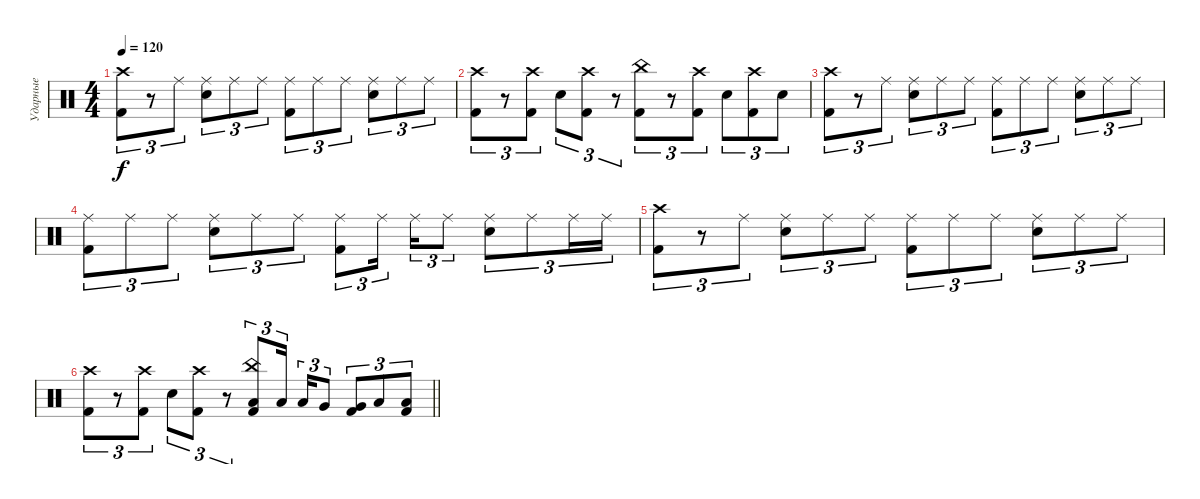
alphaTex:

\track ("Ударные" "Ударные") {instrument percussion}
\staff {score}
\articulation defaults
\ts (4 4)
\tempo 120
\clef neutral
\ks c
("Crash high (hit)" "Kick (hit) 2").8{tu (3 2) dy f} r.8{tu (3 2)} "Ride (middle)".8{tu (3 2)} ("Ride (middle)" "Snare (hit) 2").8{tu (3 2)} "Ride (middle)".8{tu (3 2)} "Ride (middle)".8{tu (3 2)} ("Ride (middle)" "Kick (hit) 2").8{tu (3 2)} "Ride (middle)".8{tu (3 2)} "Ride (middle)".8{tu (3 2)} ("Ride (middle)" "Snare (hit) 2").8{tu (3 2)} "Ride (middle)".8{tu (3 2)} "Ride (middle)".8{tu (3 2)} |
("Crash high (hit)" "Kick (hit) 2").8{tu (3 2)} r.8{tu (3 2)} ("Crash high (hit)" "Kick (hit) 2").8{tu (3 2)} "Snare (hit) 2".8{tu (3 2)} ("Crash high (hit)" "Kick (hit) 2").8{tu (3 2)} r.8{tu (3 2)} ("China (hit)" "Kick (hit) 2").8{tu (3 2)} r.8{tu (3 2)} ("Crash high (hit)" "Kick (hit) 2").8{tu (3 2)} "Snare (hit) 2".8{tu (3 2)} ("Crash high (hit)" "Kick (hit) 2").8{tu (3 2)} "Snare (hit) 2".8{tu (3 2)} |
("Crash high (hit)" "Kick (hit) 2").8{tu (3 2)} r.8{tu (3 2)} "Ride (middle)".8{tu (3 2)} ("Ride (middle)" "Snare (hit) 2").8{tu (3 2)} "Ride (middle)".8{tu (3 2)} "Ride (middle)".8{tu (3 2)} ("Ride (middle)" "Kick (hit) 2").8{tu (3 2)} "Ride (middle)".8{tu (3 2)} "Ride (middle)".8{tu (3 2)} ("Ride (middle)" "Snare (hit) 2").8{tu (3 2)} "Ride (middle)".8{tu (3 2)} "Ride (middle)".8{tu (3 2)} |
("Ride (middle)" "Kick (hit) 2").8{tu (3 2)} "Ride (middle)".8{tu (3 2)} "Ride (middle)".8{tu (3 2)} ("Ride (middle)" "Snare (hit) 2").8{tu (3 2)} "Ride (middle)".8{tu (3 2)} "Ride (middle)".8{tu (3 2)} ("Ride (middle)" "Kick (hit) 2").8{tu (3 2)} "Ride (middle)".16{tu (3 2) beam splitsecondary} "Ride (middle)".16{tu (3 2)} "Ride (middle)".8{tu (3 2)} ("Ride (middle)" "Snare (hit) 2").8{tu (3 2)} "Ride (middle)".8{tu (3 2)} "Ride (middle)".16{tu (3 2)} "Ride (middle)".16{tu (3 2)} |
("Crash high (hit)" "Kick (hit) 2").8{tu (3 2)} r.8{tu (3 2)} "Ride (middle)".8{tu (3 2)} ("Ride (middle)" "Snare (hit) 2").8{tu (3 2)} "Ride (middle)".8{tu (3 2)} "Ride (middle)".8{tu (3 2)} ("Ride (middle)" "Kick (hit) 2").8{tu (3 2)} "Ride (middle)".8{tu (3 2)} "Ride (middle)".8{tu (3 2)} ("Ride (middle)" "Snare (hit) 2").8{tu (3 2)} "Ride (middle)".8{tu (3 2)} "Ride (middle)".8{tu (3 2)} |
\barLineRight lightlight
("Crash high (hit)" "Kick (hit) 2").8{tu (3 2)} r.8{tu (3 2)} ("Crash high (hit)" "Kick (hit) 2").8{tu (3 2)} "Snare (hit) 2".8{tu (3 2)} ("Crash high (hit)" "Kick (hit) 2").8{tu (3 2)} r.8{tu (3 2)} ("China (hit)" "Low Tom (hit)" "Kick (hit) 2").8{tu (3 2)} "Low Tom (hit)".16{tu (3 2) beam splitsecondary} "Low Tom (hit)".16{tu (3 2)} "Very Low Tom (hit)".8{tu (3 2)} ("Very Low Tom (hit)" "Kick (hit) 2").8{tu (3 2)} "Low Floor Tom (hit)".8{tu (3 2)} ("Low Floor Tom (hit)" "Kick (hit) 2").8{tu (3 2)}
